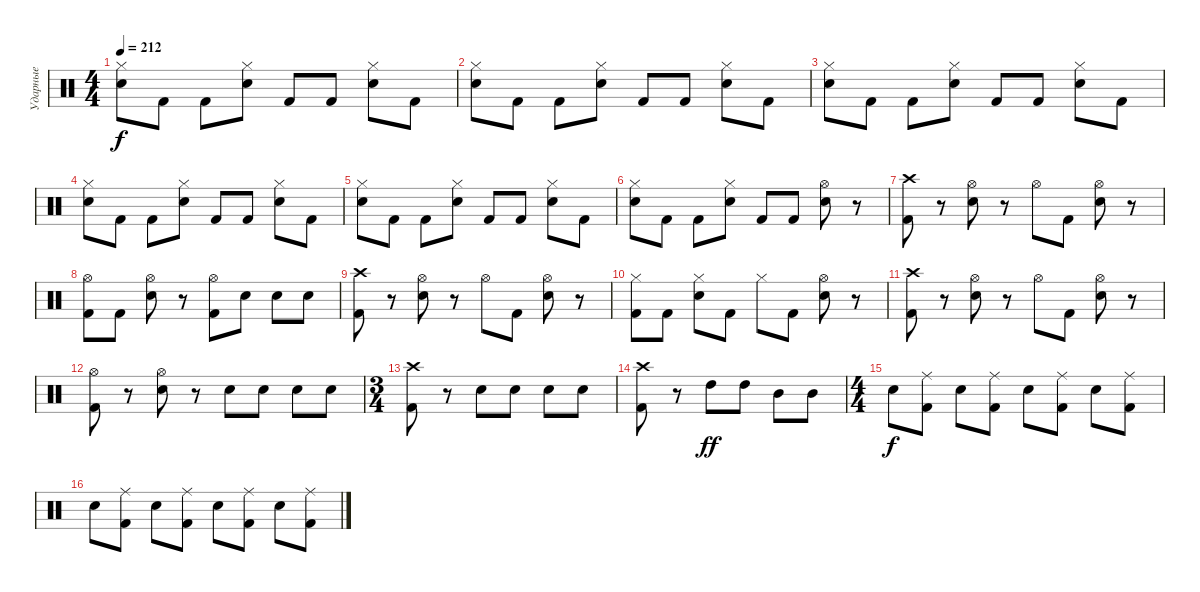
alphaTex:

\track ("Ударные" "Ударные") {instrument percussion}
\staff {score}
\articulation defaults
\ts (4 4)
\tempo 212
\clef neutral
\ks c
("Hi-Hat (closed)" "Electric Snare (hit)").8{dy f} "Kick (hit) 2".8 "Kick (hit) 2".8 ("Hi-Hat (closed)" "Electric Snare (hit)").8 "Kick (hit) 2".8 "Kick (hit) 2".8 ("Hi-Hat (closed)" "Electric Snare (hit)").8 "Kick (hit) 2".8 |
("Hi-Hat (closed)" "Electric Snare (hit)").8 "Kick (hit) 2".8 "Kick (hit) 2".8 ("Hi-Hat (closed)" "Electric Snare (hit)").8 "Kick (hit) 2".8 "Kick (hit) 2".8 ("Hi-Hat (closed)" "Electric Snare (hit)").8 "Kick (hit) 2".8 |
("Hi-Hat (closed)" "Electric Snare (hit)").8 "Kick (hit) 2".8 "Kick (hit) 2".8 ("Hi-Hat (closed)" "Electric Snare (hit)").8 "Kick (hit) 2".8 "Kick (hit) 2".8 ("Hi-Hat (closed)" "Electric Snare (hit)").8 "Kick (hit) 2".8 |
("Hi-Hat (closed)" "Electric Snare (hit)").8 "Kick (hit) 2".8 "Kick (hit) 2".8 ("Hi-Hat (closed)" "Electric Snare (hit)").8 "Kick (hit) 2".8 "Kick (hit) 2".8 ("Hi-Hat (closed)" "Electric Snare (hit)").8 "Kick (hit) 2".8 |
("Hi-Hat (closed)" "Electric Snare (hit)").8 "Kick (hit) 2".8 "Kick (hit) 2".8 ("Hi-Hat (closed)" "Electric Snare (hit)").8 "Kick (hit) 2".8 "Kick (hit) 2".8 ("Hi-Hat (closed)" "Electric Snare (hit)").8 "Kick (hit) 2".8 |
("Hi-Hat (closed)" "Electric Snare (hit)").8 "Kick (hit) 2".8 "Kick (hit) 2".8 ("Hi-Hat (closed)" "Electric Snare (hit)").8 "Kick (hit) 2".8 "Kick (hit) 2".8 ("Hi-Hat (open)" "Electric Snare (hit)").8 r.8 |
("Crash high (hit)" "Kick (hit) 2").8 r.8 ("Hi-Hat (open)" "Electric Snare (hit)").8 r.8 "Hi-Hat (open)".8 "Kick (hit) 2".8 ("Hi-Hat (open)" "Electric Snare (hit)").8 r.8 |
("Hi-Hat (open)" "Kick (hit) 2").8 "Kick (hit) 2".8 ("Hi-Hat (open)" "Electric Snare (hit)").8 r.8 ("Hi-Hat (open)" "Kick (hit) 2").8 "Electric Snare (hit)".8 "Electric Snare (hit)".8 "Electric Snare (hit)".8 |
("Crash high (hit)" "Kick (hit) 2").8 r.8 ("Hi-Hat (open)" "Electric Snare (hit)").8 r.8 "Hi-Hat (open)".8 "Kick (hit) 2".8 ("Hi-Hat (open)" "Electric Snare (hit)").8 r.8 |
("Hi-Hat (closed)" "Kick (hit) 2").8 "Kick (hit) 2".8 ("Hi-Hat (closed)" "Electric Snare (hit)").8 "Kick (hit) 2".8 "Hi-Hat (closed)".8 "Kick (hit) 2".8 ("Hi-Hat (open)" "Electric Snare (hit)").8 r.8 |
("Crash high (hit)" "Kick (hit) 2").8 r.8 ("Hi-Hat (open)" "Electric Snare (hit)").8 r.8 "Hi-Hat (open)".8 "Kick (hit) 2".8 ("Hi-Hat (open)" "Electric Snare (hit)").8 r.8 |
("Hi-Hat (open)" "Kick (hit) 2").8 r.8 ("Hi-Hat (open)" "Electric Snare (hit)").8 r.8 "Electric Snare (hit)".8 "Electric Snare (hit)".8 "Electric Snare (hit)".8 "Electric Snare (hit)".8 |
\ts (3 4)
("Crash high (hit)" "Kick (hit) 2").8 r.8 "Electric Snare (hit)".8 "Electric Snare (hit)".8 "Electric Snare (hit)".8 "Electric Snare (hit)".8 |
("Crash high (hit)" "Kick (hit) 2").8 r.8 "High Tom (hit)".8{dy ff} "High Tom (hit)".8 "Mid Tom (hit)".8 "Mid Tom (hit)".8 |
\ts (4 4)
"Electric Snare (hit)".8{dy f} ("Ride (middle)" "Kick (hit) 2").8 "Electric Snare (hit)".8 ("Ride (middle)" "Kick (hit) 2").8 "Electric Snare (hit)".8 ("Ride (middle)" "Kick (hit) 2").8 "Electric Snare (hit)".8 ("Ride (middle)" "Kick (hit) 2").8 |
"Electric Snare (hit)".8 ("Ride (middle)" "Kick (hit) 2").8 "Electric Snare (hit)".8 ("Ride (middle)" "Kick (hit) 2").8 "Electric Snare (hit)".8 ("Ride (middle)" "Kick (hit) 2").8 "Electric Snare (hit)".8 ("Ride (middle)" "Kick (hit) 2").8
